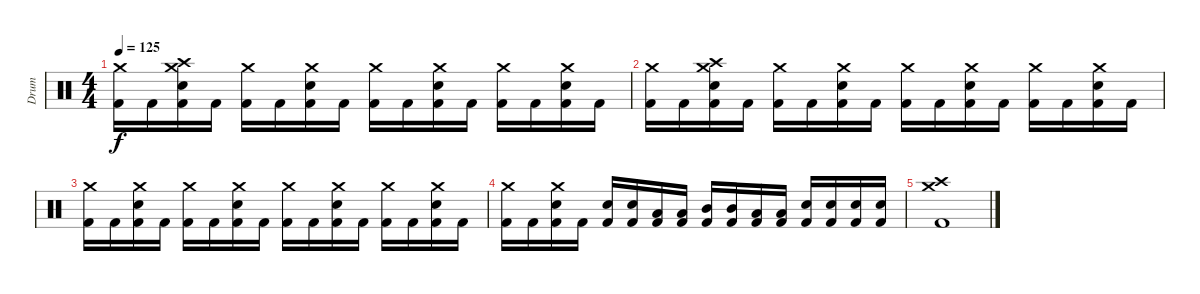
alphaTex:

\track ("Drum" "Drum") {instrument percussion}
\staff {score}
\articulation defaults
\ts (4 4)
\tempo 125
\clef neutral
\ks c
("Crash medium (hit)" "Kick (hit) 2").16{dy f} "Kick (hit) 2".16 ("Crash high (hit)" "Crash medium (hit)" "Kick (hit) 2" "Electric Snare (hit)").16 "Kick (hit) 2".16 ("Crash medium (hit)" "Kick (hit) 2").16 "Kick (hit) 2".16 ("Crash medium (hit)" "Kick (hit) 2" "Electric Snare (hit)").16 "Kick (hit) 2".16 ("Crash medium (hit)" "Kick (hit) 2").16 "Kick (hit) 2".16 ("Crash medium (hit)" "Kick (hit) 2" "Electric Snare (hit)").16 "Kick (hit) 2".16 ("Crash medium (hit)" "Kick (hit) 2").16 "Kick (hit) 2".16 ("Crash medium (hit)" "Kick (hit) 2" "Electric Snare (hit)").16 "Kick (hit) 2".16 |
("Crash medium (hit)" "Kick (hit) 2").16 "Kick (hit) 2".16 ("Crash high (hit)" "Crash medium (hit)" "Kick (hit) 2" "Electric Snare (hit)").16 "Kick (hit) 2".16 ("Crash medium (hit)" "Kick (hit) 2").16 "Kick (hit) 2".16 ("Crash medium (hit)" "Kick (hit) 2" "Electric Snare (hit)").16 "Kick (hit) 2".16 ("Crash medium (hit)" "Kick (hit) 2").16 "Kick (hit) 2".16 ("Crash medium (hit)" "Kick (hit) 2" "Electric Snare (hit)").16 "Kick (hit) 2".16 ("Crash medium (hit)" "Kick (hit) 2").16 "Kick (hit) 2".16 ("Crash medium (hit)" "Kick (hit) 2" "Electric Snare (hit)").16 "Kick (hit) 2".16 |
("Crash medium (hit)" "Kick (hit) 2").16 "Kick (hit) 2".16 ("Crash medium (hit)" "Kick (hit) 2" "Electric Snare (hit)").16 "Kick (hit) 2".16 ("Crash medium (hit)" "Kick (hit) 2").16 "Kick (hit) 2".16 ("Crash medium (hit)" "Kick (hit) 2" "Electric Snare (hit)").16 "Kick (hit) 2".16 ("Crash medium (hit)" "Kick (hit) 2").16 "Kick (hit) 2".16 ("Crash medium (hit)" "Kick (hit) 2" "Electric Snare (hit)").16 "Kick (hit) 2".16 ("Crash medium (hit)" "Kick (hit) 2").16 "Kick (hit) 2".16 ("Crash medium (hit)" "Kick (hit) 2" "Electric Snare (hit)").16 "Kick (hit) 2".16 |
("Crash medium (hit)" "Kick (hit) 2").16 "Kick (hit) 2".16 ("Crash medium (hit)" "Kick (hit) 2" "Electric Snare (hit)").16 "Kick (hit) 2".16 ("Kick (hit) 2" "Electric Snare (hit)").16 ("Kick (hit) 2" "Electric Snare (hit)").16 ("Kick (hit) 2" "Low Tom (hit)").16 ("Kick (hit) 2" "Low Tom (hit)").16 ("Kick (hit) 2" "Mid Tom (hit)").16 ("Kick (hit) 2" "Mid Tom (hit)").16 ("Kick (hit) 2" "Low Floor Tom (hit)").16 ("Kick (hit) 2" "Low Floor Tom (hit)").16 ("Kick (hit) 2" "Electric Snare (hit)").16 ("Kick (hit) 2" "Electric Snare (hit)").16 ("Kick (hit) 2" "Electric Snare (hit)").16 ("Kick (hit) 2" "Electric Snare (hit)").16 |
("Crash high (hit)" "Crash medium (hit)" "Kick (hit) 2").1
